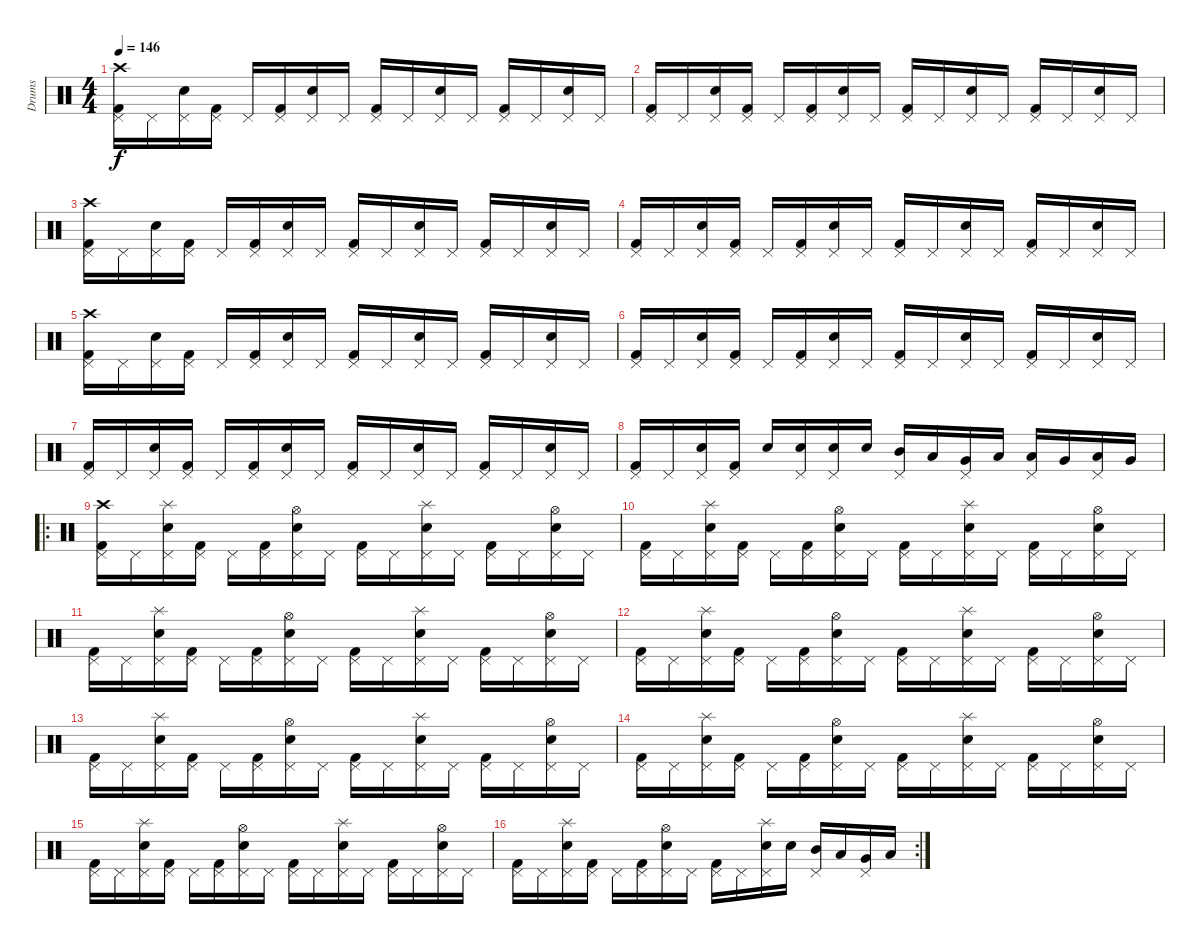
\track ("Drums" "Drums") {instrument percussion}
\staff {score}
\articulation defaults
\ts (4 4)
\tempo 146
\clef neutral
\ks c
("Kick (hit) 2" "Pedal Hi-Hat (hit)" "Crash high (hit)").16{dy f} "Pedal Hi-Hat (hit)".16 ("Snare (hit) 2" "Pedal Hi-Hat (hit)").16 ("Kick (hit) 2" "Pedal Hi-Hat (hit)").16 "Pedal Hi-Hat (hit)".16 ("Kick (hit) 2" "Pedal Hi-Hat (hit)").16 ("Snare (hit) 2" "Pedal Hi-Hat (hit)").16 "Pedal Hi-Hat (hit)".16 ("Kick (hit) 2" "Pedal Hi-Hat (hit)").16 "Pedal Hi-Hat (hit)".16 ("Snare (hit) 2" "Pedal Hi-Hat (hit)").16 "Pedal Hi-Hat (hit)".16 ("Kick (hit) 2" "Pedal Hi-Hat (hit)").16 "Pedal Hi-Hat (hit)".16 ("Snare (hit) 2" "Pedal Hi-Hat (hit)").16 "Pedal Hi-Hat (hit)".16 |
("Kick (hit) 2" "Pedal Hi-Hat (hit)").16 "Pedal Hi-Hat (hit)".16 ("Snare (hit) 2" "Pedal Hi-Hat (hit)").16 ("Kick (hit) 2" "Pedal Hi-Hat (hit)").16 "Pedal Hi-Hat (hit)".16 ("Kick (hit) 2" "Pedal Hi-Hat (hit)").16 ("Snare (hit) 2" "Pedal Hi-Hat (hit)").16 "Pedal Hi-Hat (hit)".16 ("Kick (hit) 2" "Pedal Hi-Hat (hit)").16 "Pedal Hi-Hat (hit)".16 ("Snare (hit) 2" "Pedal Hi-Hat (hit)").16 "Pedal Hi-Hat (hit)".16 ("Kick (hit) 2" "Pedal Hi-Hat (hit)").16 "Pedal Hi-Hat (hit)".16 ("Snare (hit) 2" "Pedal Hi-Hat (hit)").16 "Pedal Hi-Hat (hit)".16 |
("Kick (hit) 2" "Pedal Hi-Hat (hit)" "Crash high (hit)").16 "Pedal Hi-Hat (hit)".16 ("Snare (hit) 2" "Pedal Hi-Hat (hit)").16 ("Kick (hit) 2" "Pedal Hi-Hat (hit)").16 "Pedal Hi-Hat (hit)".16 ("Kick (hit) 2" "Pedal Hi-Hat (hit)").16 ("Snare (hit) 2" "Pedal Hi-Hat (hit)").16 "Pedal Hi-Hat (hit)".16 ("Kick (hit) 2" "Pedal Hi-Hat (hit)").16 "Pedal Hi-Hat (hit)".16 ("Snare (hit) 2" "Pedal Hi-Hat (hit)").16 "Pedal Hi-Hat (hit)".16 ("Kick (hit) 2" "Pedal Hi-Hat (hit)").16 "Pedal Hi-Hat (hit)".16 ("Snare (hit) 2" "Pedal Hi-Hat (hit)").16 "Pedal Hi-Hat (hit)".16 |
("Kick (hit) 2" "Pedal Hi-Hat (hit)").16 "Pedal Hi-Hat (hit)".16 ("Snare (hit) 2" "Pedal Hi-Hat (hit)").16 ("Kick (hit) 2" "Pedal Hi-Hat (hit)").16 "Pedal Hi-Hat (hit)".16 ("Kick (hit) 2" "Pedal Hi-Hat (hit)").16 ("Snare (hit) 2" "Pedal Hi-Hat (hit)").16 "Pedal Hi-Hat (hit)".16 ("Kick (hit) 2" "Pedal Hi-Hat (hit)").16 "Pedal Hi-Hat (hit)".16 ("Snare (hit) 2" "Pedal Hi-Hat (hit)").16 "Pedal Hi-Hat (hit)".16 ("Kick (hit) 2" "Pedal Hi-Hat (hit)").16 "Pedal Hi-Hat (hit)".16 ("Snare (hit) 2" "Pedal Hi-Hat (hit)").16 "Pedal Hi-Hat (hit)".16 |
("Kick (hit) 2" "Pedal Hi-Hat (hit)" "Crash high (hit)").16 "Pedal Hi-Hat (hit)".16 ("Snare (hit) 2" "Pedal Hi-Hat (hit)").16 ("Kick (hit) 2" "Pedal Hi-Hat (hit)").16 "Pedal Hi-Hat (hit)".16 ("Kick (hit) 2" "Pedal Hi-Hat (hit)").16 ("Snare (hit) 2" "Pedal Hi-Hat (hit)").16 "Pedal Hi-Hat (hit)".16 ("Kick (hit) 2" "Pedal Hi-Hat (hit)").16 "Pedal Hi-Hat (hit)".16 ("Snare (hit) 2" "Pedal Hi-Hat (hit)").16 "Pedal Hi-Hat (hit)".16 ("Kick (hit) 2" "Pedal Hi-Hat (hit)").16 "Pedal Hi-Hat (hit)".16 ("Snare (hit) 2" "Pedal Hi-Hat (hit)").16 "Pedal Hi-Hat (hit)".16 |
("Kick (hit) 2" "Pedal Hi-Hat (hit)").16 "Pedal Hi-Hat (hit)".16 ("Snare (hit) 2" "Pedal Hi-Hat (hit)").16 ("Kick (hit) 2" "Pedal Hi-Hat (hit)").16 "Pedal Hi-Hat (hit)".16 ("Kick (hit) 2" "Pedal Hi-Hat (hit)").16 ("Snare (hit) 2" "Pedal Hi-Hat (hit)").16 "Pedal Hi-Hat (hit)".16 ("Kick (hit) 2" "Pedal Hi-Hat (hit)").16 "Pedal Hi-Hat (hit)".16 ("Snare (hit) 2" "Pedal Hi-Hat (hit)").16 "Pedal Hi-Hat (hit)".16 ("Kick (hit) 2" "Pedal Hi-Hat (hit)").16 "Pedal Hi-Hat (hit)".16 ("Snare (hit) 2" "Pedal Hi-Hat (hit)").16 "Pedal Hi-Hat (hit)".16 |
("Kick (hit) 2" "Pedal Hi-Hat (hit)").16 "Pedal Hi-Hat (hit)".16 ("Snare (hit) 2" "Pedal Hi-Hat (hit)").16 ("Kick (hit) 2" "Pedal Hi-Hat (hit)").16 "Pedal Hi-Hat (hit)".16 ("Kick (hit) 2" "Pedal Hi-Hat (hit)").16 ("Snare (hit) 2" "Pedal Hi-Hat (hit)").16 "Pedal Hi-Hat (hit)".16 ("Kick (hit) 2" "Pedal Hi-Hat (hit)").16 "Pedal Hi-Hat (hit)".16 ("Snare (hit) 2" "Pedal Hi-Hat (hit)").16 "Pedal Hi-Hat (hit)".16 ("Kick (hit) 2" "Pedal Hi-Hat (hit)").16 "Pedal Hi-Hat (hit)".16 ("Snare (hit) 2" "Pedal Hi-Hat (hit)").16 "Pedal Hi-Hat (hit)".16 |
("Kick (hit) 2" "Pedal Hi-Hat (hit)").16 "Pedal Hi-Hat (hit)".16 ("Snare (hit) 2" "Pedal Hi-Hat (hit)").16 ("Kick (hit) 2" "Pedal Hi-Hat (hit)").16 "Snare (hit) 2".16 ("Snare (hit) 2" "Pedal Hi-Hat (hit)").16 ("Snare (hit) 2" "Pedal Hi-Hat (hit)").16 "Snare (hit) 2".16 ("Mid Tom (hit)" "Pedal Hi-Hat (hit)").16 "Low Tom (hit)".16 ("Very Low Tom (hit)" "Pedal Hi-Hat (hit)").16 "Low Floor Tom (hit)".16 ("Low Tom (hit)" "Pedal Hi-Hat (hit)").16 "Very Low Tom (hit)".16 ("Low Floor Tom (hit)" "Pedal Hi-Hat (hit)").16 "Very Low Tom (hit)".16 |
\ro
("Kick (hit) 2" "Pedal Hi-Hat (hit)" "Crash high (hit)").16 "Pedal Hi-Hat (hit)".16 ("Snare (hit) 2" "Pedal Hi-Hat (hit)" "Splash (hit)").16 ("Kick (hit) 2" "Pedal Hi-Hat (hit)").16 "Pedal Hi-Hat (hit)".16 ("Kick (hit) 2" "Pedal Hi-Hat (hit)").16 ("Snare (hit) 2" "Pedal Hi-Hat (hit)" "Hi-Hat (open)").16 "Pedal Hi-Hat (hit)".16 ("Kick (hit) 2" "Pedal Hi-Hat (hit)").16 "Pedal Hi-Hat (hit)".16 ("Snare (hit) 2" "Pedal Hi-Hat (hit)" "Splash (hit)").16 "Pedal Hi-Hat (hit)".16 ("Kick (hit) 2" "Pedal Hi-Hat (hit)").16 "Pedal Hi-Hat (hit)".16 ("Snare (hit) 2" "Pedal Hi-Hat (hit)" "Hi-Hat (open)").16 "Pedal Hi-Hat (hit)".16 |
("Kick (hit) 2" "Pedal Hi-Hat (hit)").16 "Pedal Hi-Hat (hit)".16 ("Snare (hit) 2" "Pedal Hi-Hat (hit)" "Splash (hit)").16 ("Kick (hit) 2" "Pedal Hi-Hat (hit)").16 "Pedal Hi-Hat (hit)".16 ("Kick (hit) 2" "Pedal Hi-Hat (hit)").16 ("Snare (hit) 2" "Pedal Hi-Hat (hit)" "Hi-Hat (open)").16 "Pedal Hi-Hat (hit)".16 ("Kick (hit) 2" "Pedal Hi-Hat (hit)").16 "Pedal Hi-Hat (hit)".16 ("Snare (hit) 2" "Pedal Hi-Hat (hit)" "Splash (hit)").16 "Pedal Hi-Hat (hit)".16 ("Kick (hit) 2" "Pedal Hi-Hat (hit)").16 "Pedal Hi-Hat (hit)".16 ("Snare (hit) 2" "Pedal Hi-Hat (hit)" "Hi-Hat (open)").16 "Pedal Hi-Hat (hit)".16 |
("Kick (hit) 2" "Pedal Hi-Hat (hit)").16 "Pedal Hi-Hat (hit)".16 ("Snare (hit) 2" "Pedal Hi-Hat (hit)" "Splash (hit)").16 ("Kick (hit) 2" "Pedal Hi-Hat (hit)").16 "Pedal Hi-Hat (hit)".16 ("Kick (hit) 2" "Pedal Hi-Hat (hit)").16 ("Snare (hit) 2" "Pedal Hi-Hat (hit)" "Hi-Hat (open)").16 "Pedal Hi-Hat (hit)".16 ("Kick (hit) 2" "Pedal Hi-Hat (hit)").16 "Pedal Hi-Hat (hit)".16 ("Snare (hit) 2" "Pedal Hi-Hat (hit)" "Splash (hit)").16 "Pedal Hi-Hat (hit)".16 ("Kick (hit) 2" "Pedal Hi-Hat (hit)").16 "Pedal Hi-Hat (hit)".16 ("Snare (hit) 2" "Pedal Hi-Hat (hit)" "Hi-Hat (open)").16 "Pedal Hi-Hat (hit)".16 |
("Kick (hit) 2" "Pedal Hi-Hat (hit)").16 "Pedal Hi-Hat (hit)".16 ("Snare (hit) 2" "Pedal Hi-Hat (hit)" "Splash (hit)").16 ("Kick (hit) 2" "Pedal Hi-Hat (hit)").16 "Pedal Hi-Hat (hit)".16 ("Kick (hit) 2" "Pedal Hi-Hat (hit)").16 ("Snare (hit) 2" "Pedal Hi-Hat (hit)" "Hi-Hat (open)").16 "Pedal Hi-Hat (hit)".16 ("Kick (hit) 2" "Pedal Hi-Hat (hit)").16 "Pedal Hi-Hat (hit)".16 ("Snare (hit) 2" "Pedal Hi-Hat (hit)" "Splash (hit)").16 "Pedal Hi-Hat (hit)".16 ("Kick (hit) 2" "Pedal Hi-Hat (hit)").16 "Pedal Hi-Hat (hit)".16 ("Snare (hit) 2" "Pedal Hi-Hat (hit)" "Hi-Hat (open)").16 "Pedal Hi-Hat (hit)".16 |
("Kick (hit) 2" "Pedal Hi-Hat (hit)").16 "Pedal Hi-Hat (hit)".16 ("Snare (hit) 2" "Pedal Hi-Hat (hit)" "Splash (hit)").16 ("Kick (hit) 2" "Pedal Hi-Hat (hit)").16 "Pedal Hi-Hat (hit)".16 ("Kick (hit) 2" "Pedal Hi-Hat (hit)").16 ("Snare (hit) 2" "Pedal Hi-Hat (hit)" "Hi-Hat (open)").16 "Pedal Hi-Hat (hit)".16 ("Kick (hit) 2" "Pedal Hi-Hat (hit)").16 "Pedal Hi-Hat (hit)".16 ("Snare (hit) 2" "Pedal Hi-Hat (hit)" "Splash (hit)").16 "Pedal Hi-Hat (hit)".16 ("Kick (hit) 2" "Pedal Hi-Hat (hit)").16 "Pedal Hi-Hat (hit)".16 ("Snare (hit) 2" "Pedal Hi-Hat (hit)" "Hi-Hat (open)").16 "Pedal Hi-Hat (hit)".16 |
("Kick (hit) 2" "Pedal Hi-Hat (hit)").16 "Pedal Hi-Hat (hit)".16 ("Snare (hit) 2" "Pedal Hi-Hat (hit)" "Splash (hit)").16 ("Kick (hit) 2" "Pedal Hi-Hat (hit)").16 "Pedal Hi-Hat (hit)".16 ("Kick (hit) 2" "Pedal Hi-Hat (hit)").16 ("Snare (hit) 2" "Pedal Hi-Hat (hit)" "Hi-Hat (open)").16 "Pedal Hi-Hat (hit)".16 ("Kick (hit) 2" "Pedal Hi-Hat (hit)").16 "Pedal Hi-Hat (hit)".16 ("Snare (hit) 2" "Pedal Hi-Hat (hit)" "Splash (hit)").16 "Pedal Hi-Hat (hit)".16 ("Kick (hit) 2" "Pedal Hi-Hat (hit)").16 "Pedal Hi-Hat (hit)".16 ("Snare (hit) 2" "Pedal Hi-Hat (hit)" "Hi-Hat (open)").16 "Pedal Hi-Hat (hit)".16 |
("Kick (hit) 2" "Pedal Hi-Hat (hit)").16 "Pedal Hi-Hat (hit)".16 ("Snare (hit) 2" "Pedal Hi-Hat (hit)" "Splash (hit)").16 ("Kick (hit) 2" "Pedal Hi-Hat (hit)").16 "Pedal Hi-Hat (hit)".16 ("Kick (hit) 2" "Pedal Hi-Hat (hit)").16 ("Snare (hit) 2" "Pedal Hi-Hat (hit)" "Hi-Hat (open)").16 "Pedal Hi-Hat (hit)".16 ("Kick (hit) 2" "Pedal Hi-Hat (hit)").16 "Pedal Hi-Hat (hit)".16 ("Snare (hit) 2" "Pedal Hi-Hat (hit)" "Splash (hit)").16 "Pedal Hi-Hat (hit)".16 ("Kick (hit) 2" "Pedal Hi-Hat (hit)").16 "Pedal Hi-Hat (hit)".16 ("Snare (hit) 2" "Pedal Hi-Hat (hit)" "Hi-Hat (open)").16 "Pedal Hi-Hat (hit)".16 |
\rc 2
("Kick (hit) 2" "Pedal Hi-Hat (hit)").16 "Pedal Hi-Hat (hit)".16 ("Snare (hit) 2" "Pedal Hi-Hat (hit)" "Splash (hit)").16 ("Kick (hit) 2" "Pedal Hi-Hat (hit)").16 "Pedal Hi-Hat (hit)".16 ("Kick (hit) 2" "Pedal Hi-Hat (hit)").16 ("Snare (hit) 2" "Pedal Hi-Hat (hit)" "Hi-Hat (open)").16 "Pedal Hi-Hat (hit)".16 ("Kick (hit) 2" "Pedal Hi-Hat (hit)").16 "Pedal Hi-Hat (hit)".16 ("Snare (hit) 2" "Pedal Hi-Hat (hit)" "Splash (hit)").16 "Snare (hit) 2".16 ("Mid Tom (hit)" "Pedal Hi-Hat (hit)").16 "Low Tom (hit)".16 ("Very Low Tom (hit)" "Pedal Hi-Hat (hit)").16 "Low Floor Tom (hit)".16
